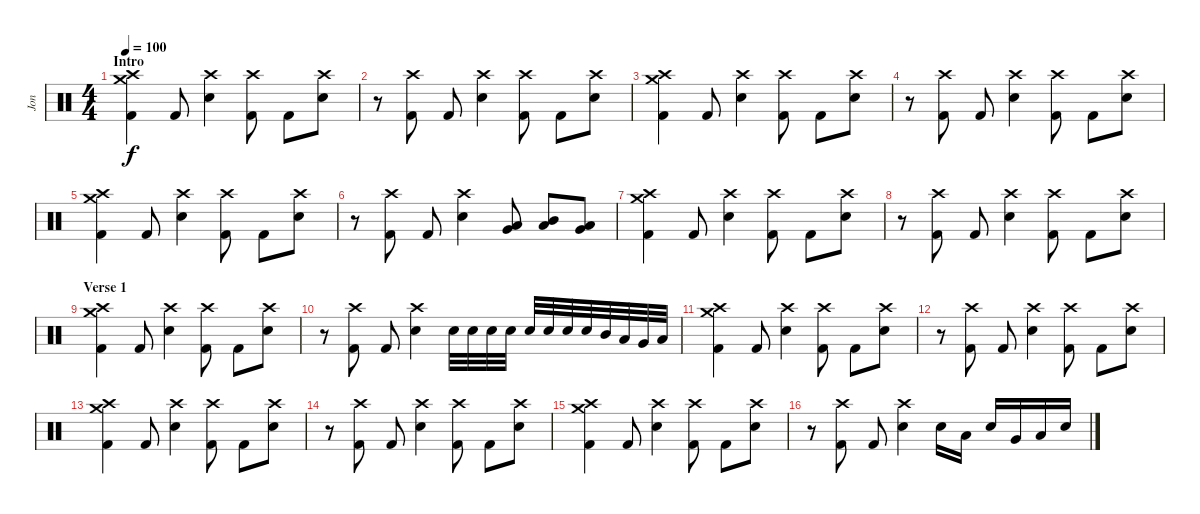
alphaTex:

\track ("Jon" "Jon") {instrument percussion}
\staff {score}
\articulation defaults
\ts (4 4)
\section ("" "Intro")
\tempo 100
\clef neutral
\ks c
("Crash medium (hit)" "Crash high (hit)" "Kick (hit) 2").4{dy f} "Kick (hit) 2".8 ("Crash high (hit)" "Snare (hit) 2").4 ("Crash high (hit)" "Kick (hit) 2").8 "Kick (hit) 2".8 ("Crash high (hit)" "Snare (hit) 2").8 |
r.8 ("Crash high (hit)" "Kick (hit) 2").8 "Kick (hit) 2".8 ("Crash high (hit)" "Snare (hit) 2").4 ("Crash high (hit)" "Kick (hit) 2").8 "Kick (hit) 2".8 ("Crash high (hit)" "Snare (hit) 2").8 |
("Crash medium (hit)" "Crash high (hit)" "Kick (hit) 2").4 "Kick (hit) 2".8 ("Crash high (hit)" "Snare (hit) 2").4 ("Crash high (hit)" "Kick (hit) 2").8 "Kick (hit) 2".8 ("Crash high (hit)" "Snare (hit) 2").8 |
r.8 ("Crash high (hit)" "Kick (hit) 2").8 "Kick (hit) 2".8 ("Crash high (hit)" "Snare (hit) 2").4 ("Crash high (hit)" "Kick (hit) 2").8 "Kick (hit) 2".8 ("Crash high (hit)" "Snare (hit) 2").8 |
("Crash medium (hit)" "Crash high (hit)" "Kick (hit) 2").4 "Kick (hit) 2".8 ("Crash high (hit)" "Snare (hit) 2").4 ("Crash high (hit)" "Kick (hit) 2").8 "Kick (hit) 2".8 ("Crash high (hit)" "Snare (hit) 2").8 |
r.8 ("Crash high (hit)" "Kick (hit) 2").8 "Kick (hit) 2".8 ("Crash high (hit)" "Snare (hit) 2").4 ("Very Low Tom (hit)" "Low Tom (hit)").8 ("Low Tom (hit)" "Mid Tom (hit)").8 ("Low Floor Tom (hit)" "Very Low Tom (hit)").8 |
("Crash medium (hit)" "Crash high (hit)" "Kick (hit) 2").4 "Kick (hit) 2".8 ("Crash high (hit)" "Snare (hit) 2").4 ("Crash high (hit)" "Kick (hit) 2").8 "Kick (hit) 2".8 ("Crash high (hit)" "Snare (hit) 2").8 |
r.8 ("Crash high (hit)" "Kick (hit) 2").8 "Kick (hit) 2".8 ("Crash high (hit)" "Snare (hit) 2").4 ("Crash high (hit)" "Kick (hit) 2").8 "Kick (hit) 2".8 ("Crash high (hit)" "Snare (hit) 2").8 |
\section ("" "Verse 1")
("Crash medium (hit)" "Crash high (hit)" "Kick (hit) 2").4 "Kick (hit) 2".8 ("Crash high (hit)" "Snare (hit) 2").4 ("Crash high (hit)" "Kick (hit) 2").8 "Kick (hit) 2".8 ("Crash high (hit)" "Snare (hit) 2").8 |
r.8 ("Crash high (hit)" "Kick (hit) 2").8 "Kick (hit) 2".8 ("Crash high (hit)" "Snare (hit) 2").4 "Snare (hit) 2".32 "Snare (hit) 2".32 "Snare (hit) 2".32 "Snare (hit) 2".32 "Snare (hit) 2".32 "Snare (hit) 2".32 "Snare (hit) 2".32 "Snare (hit) 2".32 "Mid Tom (hit)".32 "Low Tom (hit)".32 "Very Low Tom (hit)".32 "Low Floor Tom (hit)".32 |
("Crash medium (hit)" "Crash high (hit)" "Kick (hit) 2").4 "Kick (hit) 2".8 ("Crash high (hit)" "Snare (hit) 2").4 ("Crash high (hit)" "Kick (hit) 2").8 "Kick (hit) 2".8 ("Crash high (hit)" "Snare (hit) 2").8 |
r.8 ("Crash high (hit)" "Kick (hit) 2").8 "Kick (hit) 2".8 ("Crash high (hit)" "Snare (hit) 2").4 ("Crash high (hit)" "Kick (hit) 2").8 "Kick (hit) 2".8 ("Crash high (hit)" "Snare (hit) 2").8 |
("Crash medium (hit)" "Crash high (hit)" "Kick (hit) 2").4 "Kick (hit) 2".8 ("Crash high (hit)" "Snare (hit) 2").4 ("Crash high (hit)" "Kick (hit) 2").8 "Kick (hit) 2".8 ("Crash high (hit)" "Snare (hit) 2").8 |
r.8 ("Crash high (hit)" "Kick (hit) 2").8 "Kick (hit) 2".8 ("Crash high (hit)" "Snare (hit) 2").4 ("Crash high (hit)" "Kick (hit) 2").8 "Kick (hit) 2".8 ("Crash high (hit)" "Snare (hit) 2").8 |
("Crash medium (hit)" "Crash high (hit)" "Kick (hit) 2").4 "Kick (hit) 2".8 ("Crash high (hit)" "Snare (hit) 2").4 ("Crash high (hit)" "Kick (hit) 2").8 "Kick (hit) 2".8 ("Crash high (hit)" "Snare (hit) 2").8 |
r.8 ("Crash high (hit)" "Kick (hit) 2").8 "Kick (hit) 2".8 ("Crash high (hit)" "Snare (hit) 2").4 "Snare (hit) 2".16 "Low Floor Tom (hit)".16 "Snare (hit) 2".16 "Very Low Tom (hit)".16 "Low Tom (hit)".16 "Snare (hit) 2".16
